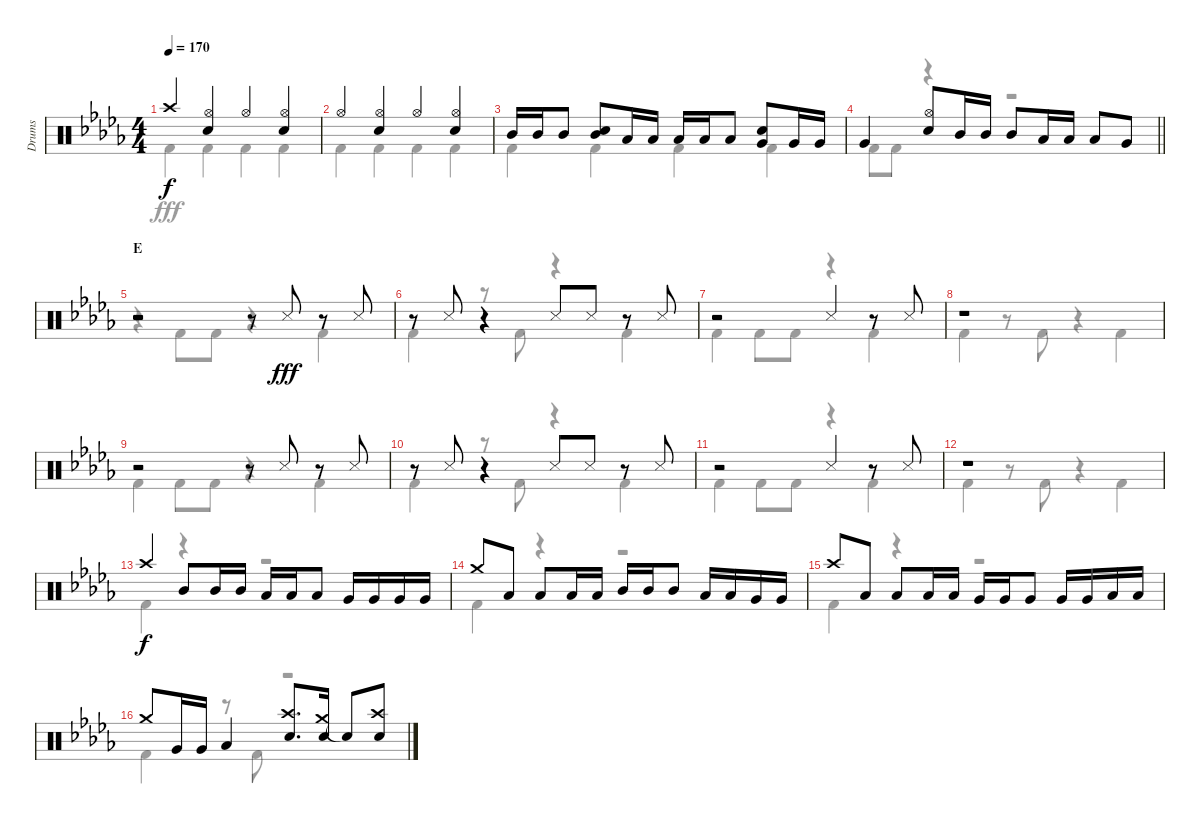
\track ("Drums" "Drums") {instrument percussion}
\staff {score}
\articulation defaults
\voice
\ts (4 4)
\tempo 170
\clef neutral
\ks db "Crash high (hit)".4{dy f}
("Hi-Hat (open)" "Snare (hit) 2").4 "Hi-Hat (open)".4 ("Hi-Hat (open)" "Snare (hit) 2").4 |
"Hi-Hat (open)".4 ("Hi-Hat (open)" "Snare (hit) 2").4 "Hi-Hat (open)".4 ("Hi-Hat (open)" "Snare (hit) 2").4 |
"Mid Tom (hit)".16 "Mid Tom (hit)".16 "Mid Tom (hit)".8 ("Mid Tom (hit)" "Snare (hit) 2").8 "Low Tom (hit)".16 "Low Tom (hit)".16 "Low Tom (hit)".16 "Low Tom (hit)".16 "Low Tom (hit)".8 ("Snare (hit) 2" "Very Low Tom (hit)").8 "Very Low Tom (hit)".16 "Very Low Tom (hit)".16 |
\barLineRight lightlight "Very Low Tom (hit)".4
("Hi-Hat (open)" "Snare (hit) 2").8 "Mid Tom (hit)".16 "Mid Tom (hit)".16 "Mid Tom (hit)".8 "Low Tom (hit)".16 "Low Tom (hit)".16 "Low Tom (hit)".8 "Very Low Tom (hit)".8 |
\section ("" "E")
r.2 r.8 "Snare (side stick) 3".8{dy fff} r.8 "Snare (side stick) 3".8 |
r.8 "Snare (side stick) 3".8 r.4 "Snare (side stick) 3".8 "Snare (side stick) 3".8 r.8 "Snare (side stick) 3".8 |
r.2 "Snare (side stick) 3".4 r.8 "Snare (side stick) 3".8 |
r.1 |
r.2 r.8 "Snare (side stick) 3".8 r.8 "Snare (side stick) 3".8 |
r.8 "Snare (side stick) 3".8 r.4 "Snare (side stick) 3".8 "Snare (side stick) 3".8 r.8 "Snare (side stick) 3".8 |
r.2 "Snare (side stick) 3".4 r.8 "Snare (side stick) 3".8 |
r.1 |
"Crash high (hit)".4{dy f} "Mid Tom (hit)".8 "Mid Tom (hit)".16 "Mid Tom (hit)".16 "Low Tom (hit)".16 "Low Tom (hit)".16 "Low Tom (hit)".8 "Very Low Tom (hit)".16 "Very Low Tom (hit)".16 "Very Low Tom (hit)".16 "Very Low Tom (hit)".16 |
"Crash medium (hit)".8 "Low Tom (hit)".8 "Low Tom (hit)".8 "Low Tom (hit)".16 "Low Tom (hit)".16 "Mid Tom (hit)".16 "Mid Tom (hit)".16 "Mid Tom (hit)".8 "Low Tom (hit)".16 "Low Tom (hit)".16 "Very Low Tom (hit)".16 "Very Low Tom (hit)".16 |
"Crash high (hit)".8 "Low Tom (hit)".8 "Low Tom (hit)".8 "Low Tom (hit)".16 "Low Tom (hit)".16 "Very Low Tom (hit)".16 "Very Low Tom (hit)".16 "Very Low Tom (hit)".8 "Very Low Tom (hit)".16 "Very Low Tom (hit)".16 "Low Tom (hit)".16 "Low Tom (hit)".16 |
"Crash medium (hit)".8 "Very Low Tom (hit)".16 "Very Low Tom (hit)".16 "Low Tom (hit)".4 ("Crash high (hit)" "Snare (hit) 2").8{d} ("Crash medium (hit)" "Snare (hit) 2").16 "Snare (hit)"{t}.8 ("Crash high (hit)" "Snare (hit) 2").8
\voice
\clef neutral
\ottava regular
\simile none
\ks db "Kick (hit) 2".4{dy fff} "Kick (hit) 2".4 "Kick (hit) 2".4 "Kick (hit) 2".4
|
"Kick (hit) 2".4 "Kick (hit) 2".4 "Kick (hit) 2".4 "Kick (hit) 2".4 |
"Kick (hit) 2".4 "Kick (hit) 2".4 "Kick (hit) 2".4 "Kick (hit) 2".4 |
\barLineRight lightlight "Kick (hit) 2".8 "Kick (hit) 2".8
r.4 r.2 |
r.4 "Kick (hit) 2".8 "Kick (hit) 2".8 r.4 "Kick (hit) 2".4 |
"Kick (hit) 2".4 r.8 "Kick (hit) 2".8 r.4 "Kick (hit) 2".4 |
"Kick (hit) 2".4 "Kick (hit) 2".8 "Kick (hit) 2".8 r.4 "Kick (hit) 2".4 |
"Kick (hit) 2".4 r.8 "Kick (hit) 2".8 r.4 "Kick (hit) 2".4 |
"Kick (hit) 2".4 "Kick (hit) 2".8 "Kick (hit) 2".8 r.4 "Kick (hit) 2".4 |
"Kick (hit) 2".4 r.8 "Kick (hit) 2".8 r.4 "Kick (hit) 2".4 |
"Kick (hit) 2".4 "Kick (hit) 2".8 "Kick (hit) 2".8 r.4 "Kick (hit) 2".4 |
"Kick (hit) 2".4 r.8 "Kick (hit) 2".8 r.4 "Kick (hit) 2".4 |
"Kick (hit) 2".4 r.4 r.2 |
"Kick (hit) 2".4 r.4 r.2 |
"Kick (hit) 2".4 r.4 r.2 |
"Kick (hit) 2".4 r.8 "Kick (hit) 2".8 r.2
